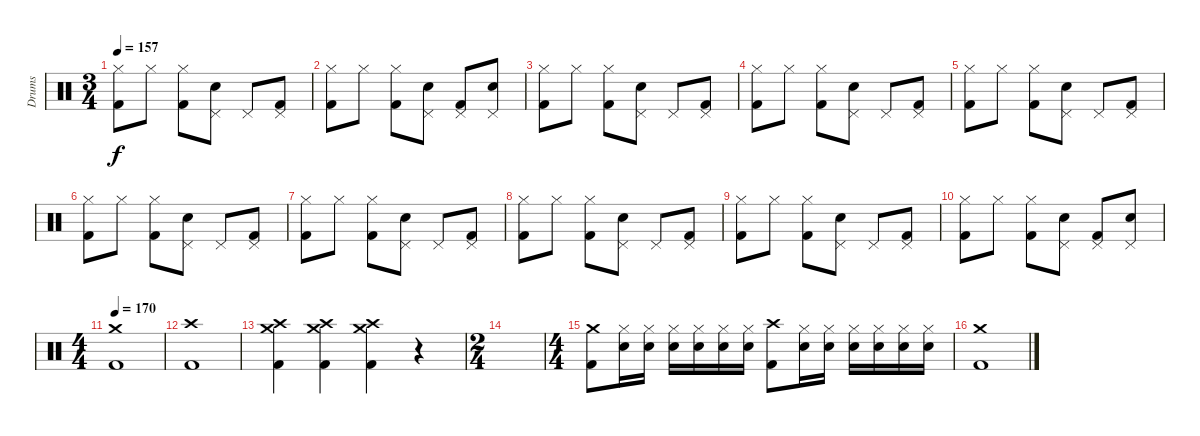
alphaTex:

\track ("Drums" "Drums") {instrument percussion}
\staff {score}
\articulation defaults
\ts (3 4)
\tempo 157
\clef neutral
\ks c
("Hi-Hat (closed)" "Kick (hit) 2").8{dy f} "Hi-Hat (closed)".8 ("Hi-Hat (closed)" "Kick (hit) 2").8 ("Pedal Hi-Hat (hit)" "Electric Snare (hit)").8 "Pedal Hi-Hat (hit)".8 ("Pedal Hi-Hat (hit)" "Kick (hit) 2").8 |
("Hi-Hat (closed)" "Kick (hit) 2").8 "Hi-Hat (closed)".8 ("Hi-Hat (closed)" "Kick (hit) 2").8 ("Pedal Hi-Hat (hit)" "Electric Snare (hit)").8 ("Pedal Hi-Hat (hit)" "Kick (hit) 2").8 ("Pedal Hi-Hat (hit)" "Electric Snare (hit)").8 |
("Hi-Hat (closed)" "Kick (hit) 2").8 "Hi-Hat (closed)".8 ("Hi-Hat (closed)" "Kick (hit) 2").8 ("Pedal Hi-Hat (hit)" "Electric Snare (hit)").8 "Pedal Hi-Hat (hit)".8 ("Pedal Hi-Hat (hit)" "Kick (hit) 2").8 |
("Hi-Hat (closed)" "Kick (hit) 2").8 "Hi-Hat (closed)".8 ("Hi-Hat (closed)" "Kick (hit) 2").8 ("Pedal Hi-Hat (hit)" "Electric Snare (hit)").8 "Pedal Hi-Hat (hit)".8 ("Pedal Hi-Hat (hit)" "Kick (hit) 2").8 |
("Hi-Hat (closed)" "Kick (hit) 2").8 "Hi-Hat (closed)".8 ("Hi-Hat (closed)" "Kick (hit) 2").8 ("Pedal Hi-Hat (hit)" "Electric Snare (hit)").8 "Pedal Hi-Hat (hit)".8 ("Pedal Hi-Hat (hit)" "Kick (hit) 2").8 |
("Hi-Hat (closed)" "Kick (hit) 2").8 "Hi-Hat (closed)".8 ("Hi-Hat (closed)" "Kick (hit) 2").8 ("Pedal Hi-Hat (hit)" "Electric Snare (hit)").8 "Pedal Hi-Hat (hit)".8 ("Pedal Hi-Hat (hit)" "Kick (hit) 2").8 |
("Hi-Hat (closed)" "Kick (hit) 2").8 "Hi-Hat (closed)".8 ("Hi-Hat (closed)" "Kick (hit) 2").8 ("Pedal Hi-Hat (hit)" "Electric Snare (hit)").8 "Pedal Hi-Hat (hit)".8 ("Pedal Hi-Hat (hit)" "Kick (hit) 2").8 |
("Hi-Hat (closed)" "Kick (hit) 2").8 "Hi-Hat (closed)".8 ("Hi-Hat (closed)" "Kick (hit) 2").8 ("Pedal Hi-Hat (hit)" "Electric Snare (hit)").8 "Pedal Hi-Hat (hit)".8 ("Pedal Hi-Hat (hit)" "Kick (hit) 2").8 |
("Hi-Hat (closed)" "Kick (hit) 2").8 "Hi-Hat (closed)".8 ("Hi-Hat (closed)" "Kick (hit) 2").8 ("Pedal Hi-Hat (hit)" "Electric Snare (hit)").8 "Pedal Hi-Hat (hit)".8 ("Pedal Hi-Hat (hit)" "Kick (hit) 2").8 |
("Hi-Hat (closed)" "Kick (hit) 2").8 "Hi-Hat (closed)".8 ("Hi-Hat (closed)" "Kick (hit) 2").8 ("Pedal Hi-Hat (hit)" "Electric Snare (hit)").8 ("Pedal Hi-Hat (hit)" "Kick (hit) 2").8 ("Pedal Hi-Hat (hit)" "Electric Snare (hit)").8 |
\ts (4 4)
\tempo 170
("Crash medium (hit)" "Kick (hit) 2").1 |
("Crash high (hit)" "Kick (hit) 2").1 |
("Crash high (hit)" "Crash medium (hit)" "Kick (hit) 2").4 ("Crash high (hit)" "Crash medium (hit)" "Kick (hit) 2").4 ("Crash high (hit)" "Crash medium (hit)" "Kick (hit) 2").4 r.4 |
\ts (2 4)
|
\ts (4 4)
("Crash medium (hit)" "Kick (hit) 2").8 ("Hi-Hat (closed)" "Electric Snare (hit)").16 ("Hi-Hat (closed)" "Electric Snare (hit)").16 ("Hi-Hat (closed)" "Electric Snare (hit)").16 ("Hi-Hat (closed)" "Electric Snare (hit)").16 ("Hi-Hat (closed)" "Electric Snare (hit)").16 ("Hi-Hat (closed)" "Electric Snare (hit)").16 ("Crash high (hit)" "Kick (hit) 2").8 ("Hi-Hat (closed)" "Electric Snare (hit)").16 ("Hi-Hat (closed)" "Electric Snare (hit)").16 ("Hi-Hat (closed)" "Electric Snare (hit)").16 ("Hi-Hat (closed)" "Electric Snare (hit)").16 ("Hi-Hat (closed)" "Electric Snare (hit)").16 ("Hi-Hat (closed)" "Electric Snare (hit)").16 |
("Crash medium (hit)" "Kick (hit) 2").1
